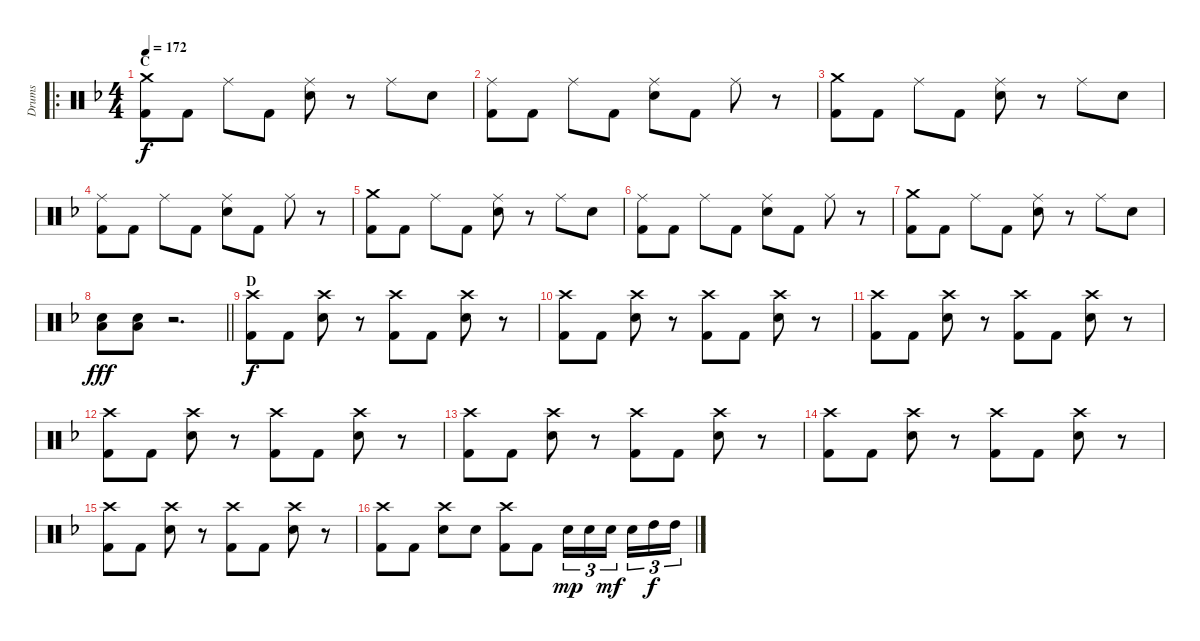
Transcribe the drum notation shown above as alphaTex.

\track ("Drums" "Drums") {instrument percussion}
\staff {score}
\articulation defaults
\ro
\ts (4 4)
\section ("" "C")
\tempo 172
\clef neutral
\ks f
("Crash medium (hit)" "Kick (hit) 2").8{dy f} "Kick (hit) 2".8 "Ride (middle)".8 "Kick (hit) 2".8 ("Ride (middle)" "Electric Snare (hit)").8 r.8 "Ride (middle)".8 "Electric Snare (hit)".8 |
("Ride (middle)" "Kick (hit) 2").8 "Kick (hit) 2".8 "Ride (middle)".8 "Kick (hit) 2".8 ("Ride (middle)" "Electric Snare (hit)").8 "Kick (hit) 2".8 "Ride (middle)".8 r.8 |
("Crash medium (hit)" "Kick (hit) 2").8 "Kick (hit) 2".8 "Ride (middle)".8 "Kick (hit) 2".8 ("Ride (middle)" "Electric Snare (hit)").8 r.8 "Ride (middle)".8 "Electric Snare (hit)".8 |
("Ride (middle)" "Kick (hit) 2").8 "Kick (hit) 2".8 "Ride (middle)".8 "Kick (hit) 2".8 ("Ride (middle)" "Electric Snare (hit)").8 "Kick (hit) 2".8 "Ride (middle)".8 r.8 |
("Crash medium (hit)" "Kick (hit) 2").8 "Kick (hit) 2".8 "Ride (middle)".8 "Kick (hit) 2".8 ("Ride (middle)" "Electric Snare (hit)").8 r.8 "Ride (middle)".8 "Electric Snare (hit)".8 |
("Ride (middle)" "Kick (hit) 2").8 "Kick (hit) 2".8 "Ride (middle)".8 "Kick (hit) 2".8 ("Ride (middle)" "Electric Snare (hit)").8 "Kick (hit) 2".8 "Ride (middle)".8 r.8 |
("Crash medium (hit)" "Kick (hit) 2").8 "Kick (hit) 2".8 "Ride (middle)".8 "Kick (hit) 2".8 ("Ride (middle)" "Electric Snare (hit)").8 r.8 "Ride (middle)".8 "Electric Snare (hit)".8 |
\barLineRight lightlight
("Low Tom (hit)" "Electric Snare (hit)").8{dy fff} ("Low Tom (hit)" "Electric Snare (hit)").8 r.2{d} |
\section ("" "D")
("Crash high (hit)" "Kick (hit) 2").8{dy f} "Kick (hit) 2".8 ("Crash high (hit)" "Electric Snare (hit)").8 r.8 ("Crash high (hit)" "Kick (hit) 2").8 "Kick (hit) 2".8 ("Crash high (hit)" "Electric Snare (hit)").8 r.8 |
("Crash high (hit)" "Kick (hit) 2").8 "Kick (hit) 2".8 ("Crash high (hit)" "Electric Snare (hit)").8 r.8 ("Crash high (hit)" "Kick (hit) 2").8 "Kick (hit) 2".8 ("Crash high (hit)" "Electric Snare (hit)").8 r.8 |
("Crash high (hit)" "Kick (hit) 2").8 "Kick (hit) 2".8 ("Crash high (hit)" "Electric Snare (hit)").8 r.8 ("Crash high (hit)" "Kick (hit) 2").8 "Kick (hit) 2".8 ("Crash high (hit)" "Electric Snare (hit)").8 r.8 |
("Crash high (hit)" "Kick (hit) 2").8 "Kick (hit) 2".8 ("Crash high (hit)" "Electric Snare (hit)").8 r.8 ("Crash high (hit)" "Kick (hit) 2").8 "Kick (hit) 2".8 ("Crash high (hit)" "Electric Snare (hit)").8 r.8 |
("Crash high (hit)" "Kick (hit) 2").8 "Kick (hit) 2".8 ("Crash high (hit)" "Electric Snare (hit)").8 r.8 ("Crash high (hit)" "Kick (hit) 2").8 "Kick (hit) 2".8 ("Crash high (hit)" "Electric Snare (hit)").8 r.8 |
("Crash high (hit)" "Kick (hit) 2").8 "Kick (hit) 2".8 ("Crash high (hit)" "Electric Snare (hit)").8 r.8 ("Crash high (hit)" "Kick (hit) 2").8 "Kick (hit) 2".8 ("Crash high (hit)" "Electric Snare (hit)").8 r.8 |
("Crash high (hit)" "Kick (hit) 2").8 "Kick (hit) 2".8 ("Crash high (hit)" "Electric Snare (hit)").8 r.8 ("Crash high (hit)" "Kick (hit) 2").8 "Kick (hit) 2".8 ("Crash high (hit)" "Electric Snare (hit)").8 r.8 |
("Crash high (hit)" "Kick (hit) 2").8 "Kick (hit) 2".8 ("Crash high (hit)" "Electric Snare (hit)").8 "Electric Snare (hit)".8 ("Crash high (hit)" "Kick (hit) 2").8 "Kick (hit) 2".8 "Electric Snare (hit)".16{tu (3 2) dy mp} "Electric Snare (hit)".16{tu (3 2)} "Electric Snare (hit)".16{tu (3 2) dy mf} "Electric Snare (hit)".16{tu (3 2)} "High Tom (hit)".16{tu (3 2) dy f} "High Tom (hit)".16{tu (3 2)}
